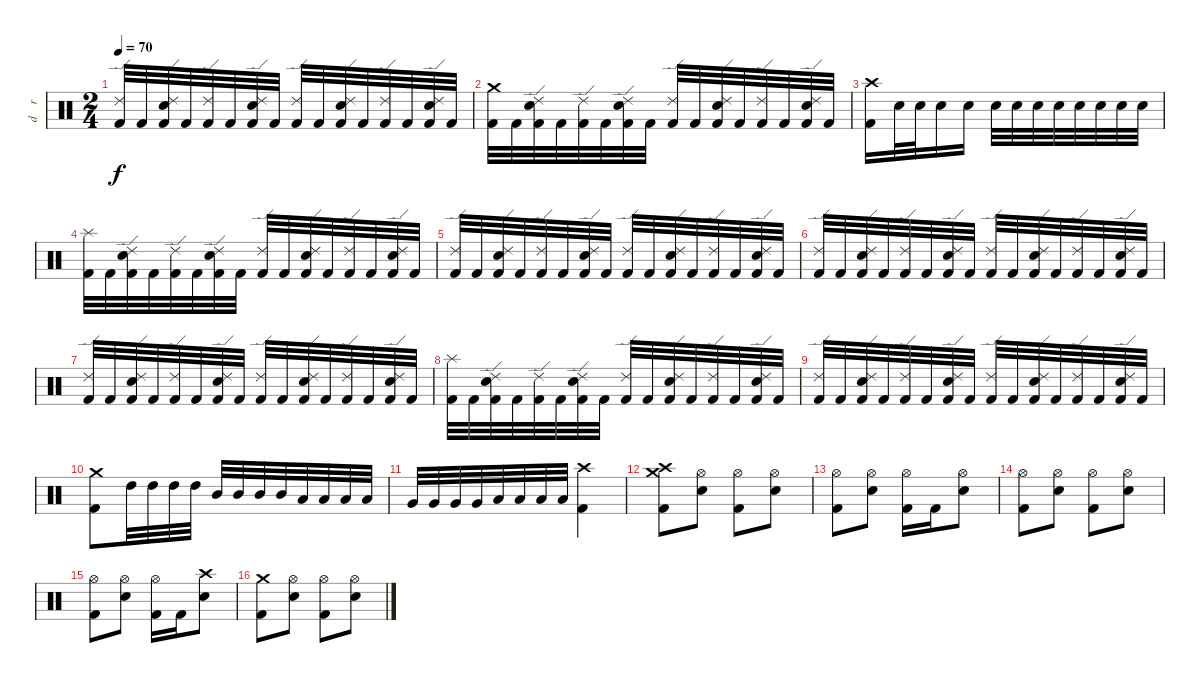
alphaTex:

\track ("d    r     u    m    s" "d    r    ") {instrument percussion}
\staff {score}
\articulation defaults
\ts (2 4)
\tempo 70
\clef neutral
\ks c
("Ride (edge) 2" "Kick (hit) 2").32{dy f} "Kick (hit) 2".32 ("Ride (edge) 2" "Electric Snare (hit)" "Kick (hit) 2").32 "Kick (hit) 2".32 ("Ride (edge) 2" "Kick (hit) 2").32 "Kick (hit) 2".32 ("Ride (edge) 2" "Electric Snare (hit)" "Kick (hit) 2").32 "Kick (hit) 2".32 ("Ride (edge) 2" "Kick (hit) 2").32 "Kick (hit) 2".32 ("Ride (edge) 2" "Electric Snare (hit)" "Kick (hit) 2").32 "Kick (hit) 2".32 ("Ride (edge) 2" "Kick (hit) 2").32 "Kick (hit) 2".32 ("Ride (edge) 2" "Electric Snare (hit)" "Kick (hit) 2").32 "Kick (hit) 2".32 |
("Crash medium (hit)" "Kick (hit) 2").32 "Kick (hit) 2".32 ("Ride (edge) 2" "Electric Snare (hit)" "Kick (hit) 2").32 "Kick (hit) 2".32 ("Ride (edge) 2" "Kick (hit) 2").32 "Kick (hit) 2".32 ("Ride (edge) 2" "Electric Snare (hit)" "Kick (hit) 2").32 "Kick (hit) 2".32 ("Ride (edge) 2" "Kick (hit) 2").32 "Kick (hit) 2".32 ("Ride (edge) 2" "Electric Snare (hit)" "Kick (hit) 2").32 "Kick (hit) 2".32 ("Ride (edge) 2" "Kick (hit) 2").32 "Kick (hit) 2".32 ("Ride (edge) 2" "Electric Snare (hit)" "Kick (hit) 2").32 "Kick (hit) 2".32 |
("Crash high (hit)" "Kick (hit) 2").16 "Electric Snare (hit)".32 "Electric Snare (hit)".32 "Electric Snare (hit)".16 "Electric Snare (hit)".16 "Electric Snare (hit)".32 "Electric Snare (hit)".32 "Electric Snare (hit)".32 "Electric Snare (hit)".32 "Electric Snare (hit)".32 "Electric Snare (hit)".32 "Electric Snare (hit)".32 "Electric Snare (hit)".32 |
("Splash (hit)" "Kick (hit) 2").32 "Kick (hit) 2".32 ("Ride (edge) 2" "Electric Snare (hit)" "Kick (hit) 2").32 "Kick (hit) 2".32 ("Ride (edge) 2" "Kick (hit) 2").32 "Kick (hit) 2".32 ("Ride (edge) 2" "Electric Snare (hit)" "Kick (hit) 2").32 "Kick (hit) 2".32 ("Ride (edge) 2" "Kick (hit) 2").32 "Kick (hit) 2".32 ("Ride (edge) 2" "Electric Snare (hit)" "Kick (hit) 2").32 "Kick (hit) 2".32 ("Ride (edge) 2" "Kick (hit) 2").32 "Kick (hit) 2".32 ("Ride (edge) 2" "Electric Snare (hit)" "Kick (hit) 2").32 "Kick (hit) 2".32 |
("Ride (edge) 2" "Kick (hit) 2").32 "Kick (hit) 2".32 ("Ride (edge) 2" "Electric Snare (hit)" "Kick (hit) 2").32 "Kick (hit) 2".32 ("Ride (edge) 2" "Kick (hit) 2").32 "Kick (hit) 2".32 ("Ride (edge) 2" "Electric Snare (hit)" "Kick (hit) 2").32 "Kick (hit) 2".32 ("Ride (edge) 2" "Kick (hit) 2").32 "Kick (hit) 2".32 ("Ride (edge) 2" "Electric Snare (hit)" "Kick (hit) 2").32 "Kick (hit) 2".32 ("Ride (edge) 2" "Kick (hit) 2").32 "Kick (hit) 2".32 ("Ride (edge) 2" "Electric Snare (hit)" "Kick (hit) 2").32 "Kick (hit) 2".32 |
("Ride (edge) 2" "Kick (hit) 2").32 "Kick (hit) 2".32 ("Ride (edge) 2" "Electric Snare (hit)" "Kick (hit) 2").32 "Kick (hit) 2".32 ("Ride (edge) 2" "Kick (hit) 2").32 "Kick (hit) 2".32 ("Ride (edge) 2" "Electric Snare (hit)" "Kick (hit) 2").32 "Kick (hit) 2".32 ("Ride (edge) 2" "Kick (hit) 2").32 "Kick (hit) 2".32 ("Ride (edge) 2" "Electric Snare (hit)" "Kick (hit) 2").32 "Kick (hit) 2".32 ("Ride (edge) 2" "Kick (hit) 2").32 "Kick (hit) 2".32 ("Ride (edge) 2" "Electric Snare (hit)" "Kick (hit) 2").32 "Kick (hit) 2".32 |
("Ride (edge) 2" "Kick (hit) 2").32 "Kick (hit) 2".32 ("Ride (edge) 2" "Electric Snare (hit)" "Kick (hit) 2").32 "Kick (hit) 2".32 ("Ride (edge) 2" "Kick (hit) 2").32 "Kick (hit) 2".32 ("Ride (edge) 2" "Electric Snare (hit)" "Kick (hit) 2").32 "Kick (hit) 2".32 ("Ride (edge) 2" "Kick (hit) 2").32 "Kick (hit) 2".32 ("Ride (edge) 2" "Electric Snare (hit)" "Kick (hit) 2").32 "Kick (hit) 2".32 ("Ride (edge) 2" "Kick (hit) 2").32 "Kick (hit) 2".32 ("Ride (edge) 2" "Electric Snare (hit)" "Kick (hit) 2").32 "Kick (hit) 2".32 |
("Splash (hit)" "Kick (hit) 2").32 "Kick (hit) 2".32 ("Ride (edge) 2" "Electric Snare (hit)" "Kick (hit) 2").32 "Kick (hit) 2".32 ("Ride (edge) 2" "Kick (hit) 2").32 "Kick (hit) 2".32 ("Ride (edge) 2" "Electric Snare (hit)" "Kick (hit) 2").32 "Kick (hit) 2".32 ("Ride (edge) 2" "Kick (hit) 2").32 "Kick (hit) 2".32 ("Ride (edge) 2" "Electric Snare (hit)" "Kick (hit) 2").32 "Kick (hit) 2".32 ("Ride (edge) 2" "Kick (hit) 2").32 "Kick (hit) 2".32 ("Ride (edge) 2" "Electric Snare (hit)" "Kick (hit) 2").32 "Kick (hit) 2".32 |
("Ride (edge) 2" "Kick (hit) 2").32 "Kick (hit) 2".32 ("Ride (edge) 2" "Electric Snare (hit)" "Kick (hit) 2").32 "Kick (hit) 2".32 ("Ride (edge) 2" "Kick (hit) 2").32 "Kick (hit) 2".32 ("Ride (edge) 2" "Electric Snare (hit)" "Kick (hit) 2").32 "Kick (hit) 2".32 ("Ride (edge) 2" "Kick (hit) 2").32 "Kick (hit) 2".32 ("Ride (edge) 2" "Electric Snare (hit)" "Kick (hit) 2").32 "Kick (hit) 2".32 ("Ride (edge) 2" "Kick (hit) 2").32 "Kick (hit) 2".32 ("Ride (edge) 2" "Electric Snare (hit)" "Kick (hit) 2").32 "Kick (hit) 2".32 |
("Crash medium (hit)" "Kick (hit) 2").8 "High Tom (hit)".32 "High Tom (hit)".32 "High Tom (hit)".32 "High Tom (hit)".32 "Mid Tom (hit)".32 "Mid Tom (hit)".32 "Mid Tom (hit)".32 "Mid Tom (hit)".32 "Low Tom (hit)".32 "Low Tom (hit)".32 "Low Tom (hit)".32 "Low Tom (hit)".32 |
"Very Low Tom (hit)".32 "Very Low Tom (hit)".32 "Very Low Tom (hit)".32 "Very Low Tom (hit)".32 "Low Floor Tom (hit)".32 "Low Floor Tom (hit)".32 "Low Floor Tom (hit)".32 "Low Floor Tom (hit)".32 ("Crash high (hit)" "Kick (hit) 2").4 |
("Crash medium (hit)" "Crash high (hit)" "Kick (hit) 2").8 ("Hi-Hat (open)" "Electric Snare (hit)").8 ("Hi-Hat (open)" "Kick (hit) 2").8 ("Hi-Hat (open)" "Electric Snare (hit)").8 |
("Hi-Hat (open)" "Kick (hit) 2").8 ("Hi-Hat (open)" "Electric Snare (hit)").8 ("Hi-Hat (open)" "Kick (hit) 2").16 "Kick (hit) 2".16 ("Hi-Hat (open)" "Electric Snare (hit)").8 |
("Hi-Hat (open)" "Kick (hit) 2").8 ("Hi-Hat (open)" "Electric Snare (hit)").8 ("Hi-Hat (open)" "Kick (hit) 2").8 ("Hi-Hat (open)" "Electric Snare (hit)").8 |
("Hi-Hat (open)" "Kick (hit) 2").8 ("Hi-Hat (open)" "Electric Snare (hit)").8 ("Hi-Hat (open)" "Kick (hit) 2").16 "Kick (hit) 2".16 ("Crash high (hit)" "Electric Snare (hit)").8 |
("Crash medium (hit)" "Kick (hit) 2").8 ("Hi-Hat (open)" "Electric Snare (hit)").8 ("Hi-Hat (open)" "Kick (hit) 2").8 ("Hi-Hat (open)" "Electric Snare (hit)").8
